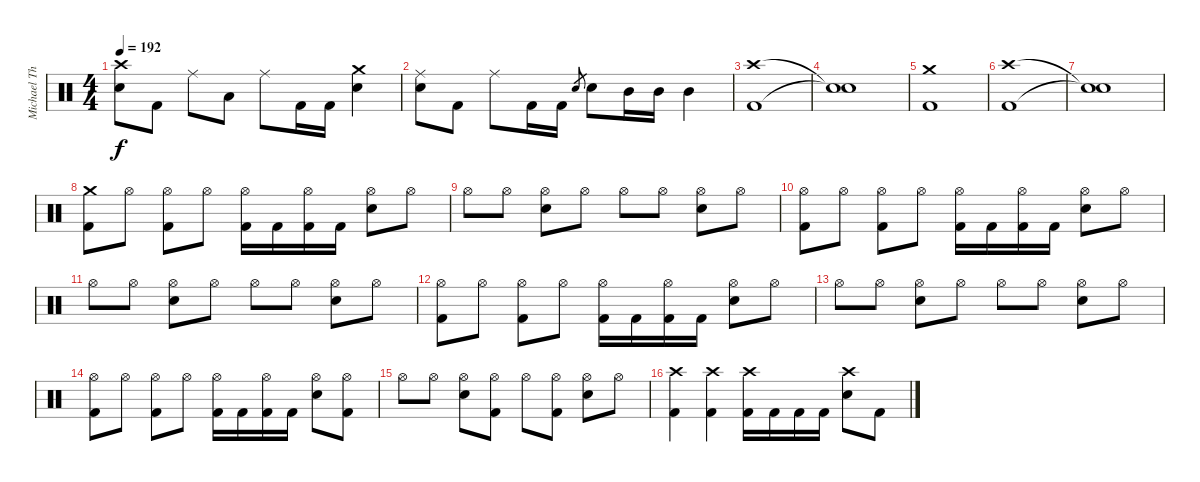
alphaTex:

\track ("Michael Thomas (Drums)" "Michael Th") {instrument percussion}
\staff {score}
\articulation defaults
\ts (4 4)
\tempo 192
\clef neutral
\ks c
("Crash high (hit)" "Snare (hit) 2").8{dy f} "Kick (hit) 2".8 "Ride (middle)".8 "Low Tom (hit)".8 "Ride (middle)".8 "Kick (hit) 2".16 "Kick (hit) 2".16 ("Crash medium (hit)" "Snare (hit) 2").4 |
("Snare (hit) 2" "Ride (middle)").8 "Kick (hit) 2".8 "Ride (middle)".8 "Kick (hit) 2".16 "Kick (hit) 2".16 "Snare (hit) 2".8{gr} "Snare (hit) 2".8 "Mid Tom (hit)".16 "Mid Tom (hit)".16 "Mid Tom (hit)".4 |
("Crash high (hit)" "Kick (hit) 2").1 |
("Snare (hit)"{t} "Snare (hit)"{t}).1 |
("Crash medium (hit)" "Kick (hit) 2").1 |
("Crash high (hit)" "Kick (hit) 2").1 |
("Snare (hit)"{t} "Snare (hit)"{t}).1 |
("Crash medium (hit)" "Kick (hit) 2").8 "Hi-Hat (open)".8 ("Hi-Hat (open)" "Kick (hit) 2").8 "Hi-Hat (open)".8 ("Hi-Hat (open)" "Kick (hit) 2").16 "Kick (hit) 2".16 ("Hi-Hat (open)" "Kick (hit) 2").16 "Kick (hit) 2".16 ("Hi-Hat (open)" "Snare (hit) 2").8 "Hi-Hat (open)".8 |
"Hi-Hat (open)".8 "Hi-Hat (open)".8 ("Hi-Hat (open)" "Snare (hit) 2").8 "Hi-Hat (open)".8 "Hi-Hat (open)".8 "Hi-Hat (open)".8 ("Hi-Hat (open)" "Snare (hit) 2").8 "Hi-Hat (open)".8 |
("Hi-Hat (open)" "Kick (hit) 2").8 "Hi-Hat (open)".8 ("Hi-Hat (open)" "Kick (hit) 2").8 "Hi-Hat (open)".8 ("Hi-Hat (open)" "Kick (hit) 2").16 "Kick (hit) 2".16 ("Hi-Hat (open)" "Kick (hit) 2").16 "Kick (hit) 2".16 ("Hi-Hat (open)" "Snare (hit) 2").8 "Hi-Hat (open)".8 |
"Hi-Hat (open)".8 "Hi-Hat (open)".8 ("Hi-Hat (open)" "Snare (hit) 2").8 "Hi-Hat (open)".8 "Hi-Hat (open)".8 "Hi-Hat (open)".8 ("Hi-Hat (open)" "Snare (hit) 2").8 "Hi-Hat (open)".8 |
("Hi-Hat (open)" "Kick (hit) 2").8 "Hi-Hat (open)".8 ("Hi-Hat (open)" "Kick (hit) 2").8 "Hi-Hat (open)".8 ("Hi-Hat (open)" "Kick (hit) 2").16 "Kick (hit) 2".16 ("Hi-Hat (open)" "Kick (hit) 2").16 "Kick (hit) 2".16 ("Hi-Hat (open)" "Snare (hit) 2").8 "Hi-Hat (open)".8 |
"Hi-Hat (open)".8 "Hi-Hat (open)".8 ("Hi-Hat (open)" "Snare (hit) 2").8 "Hi-Hat (open)".8 "Hi-Hat (open)".8 "Hi-Hat (open)".8 ("Hi-Hat (open)" "Snare (hit) 2").8 "Hi-Hat (open)".8 |
("Hi-Hat (open)" "Kick (hit) 2").8 "Hi-Hat (open)".8 ("Hi-Hat (open)" "Kick (hit) 2").8 "Hi-Hat (open)".8 ("Hi-Hat (open)" "Kick (hit) 2").16 "Kick (hit) 2".16 ("Hi-Hat (open)" "Kick (hit) 2").16 "Kick (hit) 2".16 ("Hi-Hat (open)" "Snare (hit) 2").8 ("Hi-Hat (open)" "Kick (hit) 2").8 |
"Hi-Hat (open)".8 "Hi-Hat (open)".8 ("Hi-Hat (open)" "Snare (hit) 2").8 ("Hi-Hat (open)" "Kick (hit) 2").8 "Hi-Hat (open)".8 ("Hi-Hat (open)" "Kick (hit) 2").8 ("Hi-Hat (open)" "Snare (hit) 2").8 "Hi-Hat (open)".8 |
("Crash high (hit)" "Kick (hit) 2").4 ("Crash high (hit)" "Kick (hit) 2").4 ("Crash high (hit)" "Kick (hit) 2").16 "Kick (hit) 2".16 "Kick (hit) 2".16 "Kick (hit) 2".16 ("Crash high (hit)" "Snare (hit) 2").8 "Kick (hit) 2".8
